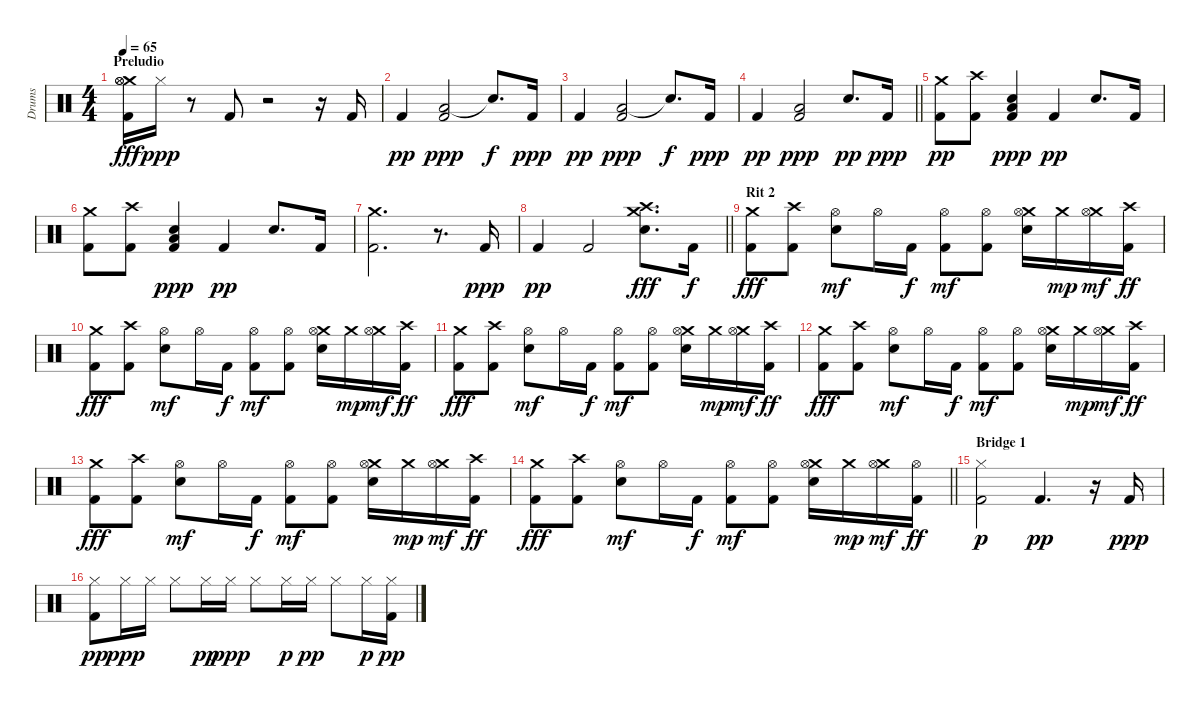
\track ("Drums" "Drums") {instrument percussion}
\staff {score}
\articulation defaults
\ts (4 4)
\section ("" "Preludio")
\tempo 65
\clef neutral
\ks c
("Crash medium (hit)" "Hi-Hat (open)" "Hi-Hat (open)" "Kick (hit) 2").16{dy fff} "Hi-Hat (closed)".16{dy ppp} r.8 "Kick (hit) 2".8 r.2 r.16 "Kick (hit) 2".16 |
"Kick (hit) 2".4{dy pp} ("Low Floor Tom (hit)" "Kick (hit) 2").2{dy ppp} "Snare (hit)"{t}.8{d dy f} "Kick (hit) 2".16{dy ppp} |
"Kick (hit) 2".4{dy pp} ("Low Floor Tom (hit)" "Kick (hit) 2").2{dy ppp} "Snare (hit)"{t}.8{d dy f} "Kick (hit) 2".16{dy ppp} |
\barLineRight lightlight "Kick (hit) 2".4{dy pp}
("Low Floor Tom (hit)" "Kick (hit) 2").2{dy ppp} "Electric Snare (hit)".8{d dy pp} "Kick (hit) 2".16{dy ppp} |
("Crash medium (hit)" "Kick (hit) 2").8{dy pp} ("Crash high (hit)" "Kick (hit) 2").8 ("Electric Snare (hit)" "Low Floor Tom (hit)" "Kick (hit) 2").4{dy ppp} "Kick (hit) 2".4{dy pp} "Electric Snare (hit)".8{d} "Kick (hit) 2".16 |
("Crash medium (hit)" "Kick (hit) 2").8 ("Crash high (hit)" "Kick (hit) 2").8 ("Electric Snare (hit)" "Low Floor Tom (hit)" "Kick (hit) 2").4{dy ppp} "Kick (hit) 2".4{dy pp} "Electric Snare (hit)".8{d} "Kick (hit) 2".16 |
("Crash medium (hit)" "Kick (hit) 2").2{d} r.8{d} "Kick (hit) 2".16{dy ppp} |
\barLineRight lightlight "Kick (hit) 2".4{dy pp} "Kick (hit) 2".2
("Crash medium (hit)" "Crash high (hit)" "Electric Snare (hit)").8{d dy fff} "Kick (hit) 2".16{dy f} |
\section ("" "Rit 2")
("Crash medium (hit)" "Kick (hit) 2").8{dy fff} ("Crash high (hit)" "Kick (hit) 2").8 ("Hi-Hat (open)" "Electric Snare (hit)").8{dy mf} "Hi-Hat (open)".16 "Kick (hit) 2".16{dy f} ("Hi-Hat (open)" "Kick (hit) 2").8{dy mf} ("Hi-Hat (open)" "Kick (hit) 2").8 ("Crash medium (hit)" "Hi-Hat (open)" "Electric Snare (hit)").16 "Crash medium (hit)".16{dy mp} ("Crash medium (hit)" "Hi-Hat (open)").16{dy mf} ("Crash high (hit)" "Kick (hit) 2").16{dy ff} |
("Crash medium (hit)" "Kick (hit) 2").8{dy fff} ("Crash high (hit)" "Kick (hit) 2").8 ("Hi-Hat (open)" "Electric Snare (hit)").8{dy mf} "Hi-Hat (open)".16 "Kick (hit) 2".16{dy f} ("Hi-Hat (open)" "Kick (hit) 2").8{dy mf} ("Hi-Hat (open)" "Kick (hit) 2").8 ("Crash medium (hit)" "Hi-Hat (open)" "Electric Snare (hit)").16 "Crash medium (hit)".16{dy mp} ("Crash medium (hit)" "Hi-Hat (open)").16{dy mf} ("Crash high (hit)" "Kick (hit) 2").16{dy ff} |
("Crash medium (hit)" "Kick (hit) 2").8{dy fff} ("Crash high (hit)" "Kick (hit) 2").8 ("Hi-Hat (open)" "Electric Snare (hit)").8{dy mf} "Hi-Hat (open)".16 "Kick (hit) 2".16{dy f} ("Hi-Hat (open)" "Kick (hit) 2").8{dy mf} ("Hi-Hat (open)" "Kick (hit) 2").8 ("Crash medium (hit)" "Hi-Hat (open)" "Electric Snare (hit)").16 "Crash medium (hit)".16{dy mp} ("Crash medium (hit)" "Hi-Hat (open)").16{dy mf} ("Crash high (hit)" "Kick (hit) 2").16{dy ff} |
("Crash medium (hit)" "Kick (hit) 2").8{dy fff} ("Crash high (hit)" "Kick (hit) 2").8 ("Hi-Hat (open)" "Electric Snare (hit)").8{dy mf} "Hi-Hat (open)".16 "Kick (hit) 2".16{dy f} ("Hi-Hat (open)" "Kick (hit) 2").8{dy mf} ("Hi-Hat (open)" "Kick (hit) 2").8 ("Crash medium (hit)" "Hi-Hat (open)" "Electric Snare (hit)").16 "Crash medium (hit)".16{dy mp} ("Crash medium (hit)" "Hi-Hat (open)").16{dy mf} ("Crash high (hit)" "Kick (hit) 2").16{dy ff} |
("Crash medium (hit)" "Kick (hit) 2").8{dy fff} ("Crash high (hit)" "Kick (hit) 2").8 ("Hi-Hat (open)" "Electric Snare (hit)").8{dy mf} "Hi-Hat (open)".16 "Kick (hit) 2".16{dy f} ("Hi-Hat (open)" "Kick (hit) 2").8{dy mf} ("Hi-Hat (open)" "Kick (hit) 2").8 ("Crash medium (hit)" "Hi-Hat (open)" "Electric Snare (hit)").16 "Crash medium (hit)".16{dy mp} ("Crash medium (hit)" "Hi-Hat (open)").16{dy mf} ("Crash high (hit)" "Kick (hit) 2").16{dy ff} |
\barLineRight lightlight
("Crash medium (hit)" "Kick (hit) 2").8{dy fff} ("Crash high (hit)" "Kick (hit) 2").8 ("Hi-Hat (open)" "Electric Snare (hit)").8{dy mf} "Hi-Hat (open)".16 "Kick (hit) 2".16{dy f} ("Hi-Hat (open)" "Kick (hit) 2").8{dy mf} ("Hi-Hat (open)" "Kick (hit) 2").8 ("Crash medium (hit)" "Hi-Hat (open)" "Electric Snare (hit)").16 "Crash medium (hit)".16{dy mp} ("Crash medium (hit)" "Hi-Hat (open)").16{dy mf} ("Hi-Hat (open)" "Kick (hit) 2").16{dy ff} |
\section ("" "Bridge 1")
("Hi-Hat (closed)" "Kick (hit) 2").2{dy p} "Kick (hit) 2".4{d dy pp} r.16 "Kick (hit) 2".16{dy ppp} |
("Hi-Hat (closed)" "Kick (hit) 2").8{dy pp} "Hi-Hat (closed)".16{dy ppp} "Hi-Hat (closed)".16 "Hi-Hat (closed)".8 "Hi-Hat (closed)".16{dy pp} "Hi-Hat (closed)".16{dy ppp} "Hi-Hat (closed)".8 "Hi-Hat (closed)".16{dy p} "Hi-Hat (closed)".16{dy pp} "Hi-Hat (closed)".8 "Hi-Hat (closed)".16{dy p} ("Hi-Hat (closed)" "Kick (hit) 2").16{dy pp}
